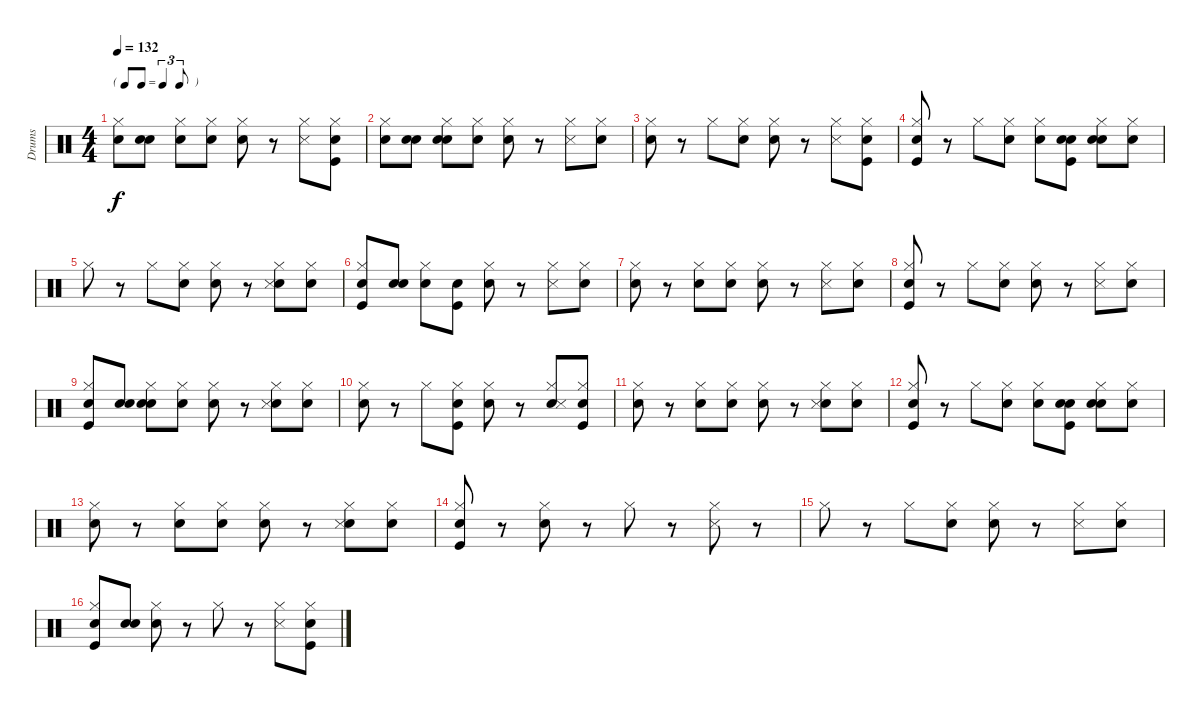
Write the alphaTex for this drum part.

\track ("Drums" "Drums") {instrument percussion}
\staff {score}
\articulation defaults
\ts (4 4)
\tf triplet8th
\tempo 132
\clef neutral
\ks c
("Snare (hit)" "Hi-Hat (closed)").8{dy f} ("Snare (hit)" "Snare (hit) 2").8 ("Snare (hit)" "Hi-Hat (closed)").8 ("Snare (hit)" "Hi-Hat (closed)").8 ("Snare (hit)" "Hi-Hat (closed)").8 r.8 ("Hi-Hat (closed)" "Snare (side stick) 3").8 ("Snare (hit)" "Kick (hit)" "Hi-Hat (closed)").8 |
("Snare (hit)" "Hi-Hat (closed)").8 ("Snare (hit)" "Snare (hit) 2").8 ("Snare (hit)" "Snare (hit) 2" "Hi-Hat (closed)").8 ("Snare (hit)" "Hi-Hat (closed)").8 ("Snare (hit)" "Hi-Hat (closed)").8 r.8 ("Hi-Hat (closed)" "Snare (side stick) 3").8 ("Snare (hit)" "Hi-Hat (closed)").8 |
("Snare (hit)" "Hi-Hat (closed)").8 r.8 "Hi-Hat (closed)".8 ("Snare (hit)" "Hi-Hat (closed)").8 ("Snare (hit)" "Hi-Hat (closed)").8 r.8 ("Hi-Hat (closed)" "Snare (side stick) 3").8 ("Snare (hit)" "Kick (hit)" "Hi-Hat (closed)").8 |
("Snare (hit)" "Kick (hit)" "Hi-Hat (closed)").8 r.8 "Hi-Hat (closed)".8 ("Snare (hit)" "Hi-Hat (closed)").8 ("Snare (hit)" "Hi-Hat (closed)").8 ("Snare (hit)" "Kick (hit)" "Snare (hit) 2").8 ("Snare (hit)" "Snare (hit) 2" "Hi-Hat (closed)").8 ("Snare (hit)" "Hi-Hat (closed)").8 |
"Hi-Hat (closed)".8 r.8 "Hi-Hat (closed)".8 ("Snare (hit)" "Hi-Hat (closed)").8 ("Snare (hit)" "Hi-Hat (closed)").8 r.8 ("Snare (hit) 2" "Hi-Hat (closed)" "Snare (side stick) 3").8 ("Snare (hit)" "Hi-Hat (closed)").8 |
("Snare (hit)" "Kick (hit)" "Hi-Hat (closed)").8 ("Snare (hit)" "Snare (hit) 2").8 ("Snare (hit)" "Hi-Hat (closed)").8 ("Snare (hit)" "Kick (hit)").8 ("Snare (hit)" "Hi-Hat (closed)").8 r.8 ("Hi-Hat (closed)" "Snare (side stick) 3").8 ("Snare (hit)" "Hi-Hat (closed)").8 |
("Snare (hit)" "Hi-Hat (closed)").8 r.8 ("Snare (hit) 2" "Hi-Hat (closed)").8 ("Snare (hit)" "Hi-Hat (closed)").8 ("Snare (hit)" "Hi-Hat (closed)").8 r.8 ("Hi-Hat (closed)" "Snare (side stick) 3").8 ("Snare (hit)" "Hi-Hat (closed)").8 |
("Snare (hit)" "Kick (hit)" "Hi-Hat (closed)").8 r.8 "Hi-Hat (closed)".8 ("Snare (hit)" "Hi-Hat (closed)").8 ("Snare (hit)" "Hi-Hat (closed)").8 r.8 ("Hi-Hat (closed)" "Snare (side stick) 3").8 ("Snare (hit)" "Hi-Hat (closed)").8 |
("Snare (hit)" "Kick (hit)" "Hi-Hat (closed)").8 ("Snare (hit)" "Snare (hit) 2").8 ("Snare (hit)" "Snare (hit) 2" "Hi-Hat (closed)").8 ("Snare (hit)" "Hi-Hat (closed)").8 ("Snare (hit)" "Hi-Hat (closed)").8 r.8 ("Snare (hit) 2" "Hi-Hat (closed)" "Snare (side stick) 3").8 ("Snare (hit)" "Hi-Hat (closed)").8 |
("Snare (hit)" "Hi-Hat (closed)").8 r.8 "Hi-Hat (closed)".8 ("Snare (hit)" "Kick (hit)" "Hi-Hat (closed)").8 ("Snare (hit)" "Hi-Hat (closed)").8 r.8 ("Snare (hit) 2" "Hi-Hat (closed)" "Snare (side stick) 3").8 ("Snare (hit)" "Kick (hit)" "Hi-Hat (closed)").8 |
("Snare (hit)" "Hi-Hat (closed)").8 r.8 ("Snare (hit) 2" "Hi-Hat (closed)").8 ("Snare (hit)" "Hi-Hat (closed)").8 ("Snare (hit)" "Hi-Hat (closed)").8 r.8 ("Snare (hit) 2" "Hi-Hat (closed)" "Snare (side stick) 3").8 ("Snare (hit)" "Hi-Hat (closed)").8 |
("Snare (hit)" "Kick (hit)" "Hi-Hat (closed)").8 r.8 "Hi-Hat (closed)".8 ("Snare (hit)" "Hi-Hat (closed)").8 ("Snare (hit)" "Hi-Hat (closed)").8 ("Snare (hit)" "Kick (hit)" "Snare (hit) 2").8 ("Snare (hit)" "Snare (hit) 2" "Hi-Hat (closed)").8 ("Snare (hit)" "Hi-Hat (closed)").8 |
("Snare (hit)" "Hi-Hat (closed)").8 r.8 ("Snare (hit) 2" "Hi-Hat (closed)").8 ("Snare (hit)" "Hi-Hat (closed)").8 ("Snare (hit)" "Hi-Hat (closed)").8 r.8 ("Snare (hit) 2" "Hi-Hat (closed)" "Snare (side stick) 3").8 ("Snare (hit)" "Hi-Hat (closed)").8 |
("Snare (hit)" "Kick (hit)" "Hi-Hat (closed)").8 r.8 ("Snare (hit) 2" "Hi-Hat (closed)").8 r.8 "Hi-Hat (closed)".8 r.8 ("Hi-Hat (closed)" "Snare (side stick) 3").8 r.8 |
"Hi-Hat (closed)".8 r.8 "Hi-Hat (closed)".8 ("Snare (hit)" "Hi-Hat (closed)").8 ("Snare (hit)" "Hi-Hat (closed)").8 r.8 ("Hi-Hat (closed)" "Snare (side stick) 3").8 ("Snare (hit)" "Hi-Hat (closed)").8 |
("Snare (hit)" "Kick (hit)" "Hi-Hat (closed)").8 ("Snare (hit)" "Snare (hit) 2").8 ("Snare (hit)" "Hi-Hat (closed)").8 r.8 "Hi-Hat (closed)".8 r.8 ("Hi-Hat (closed)" "Snare (side stick) 3").8 ("Snare (hit)" "Kick (hit)" "Hi-Hat (closed)").8
